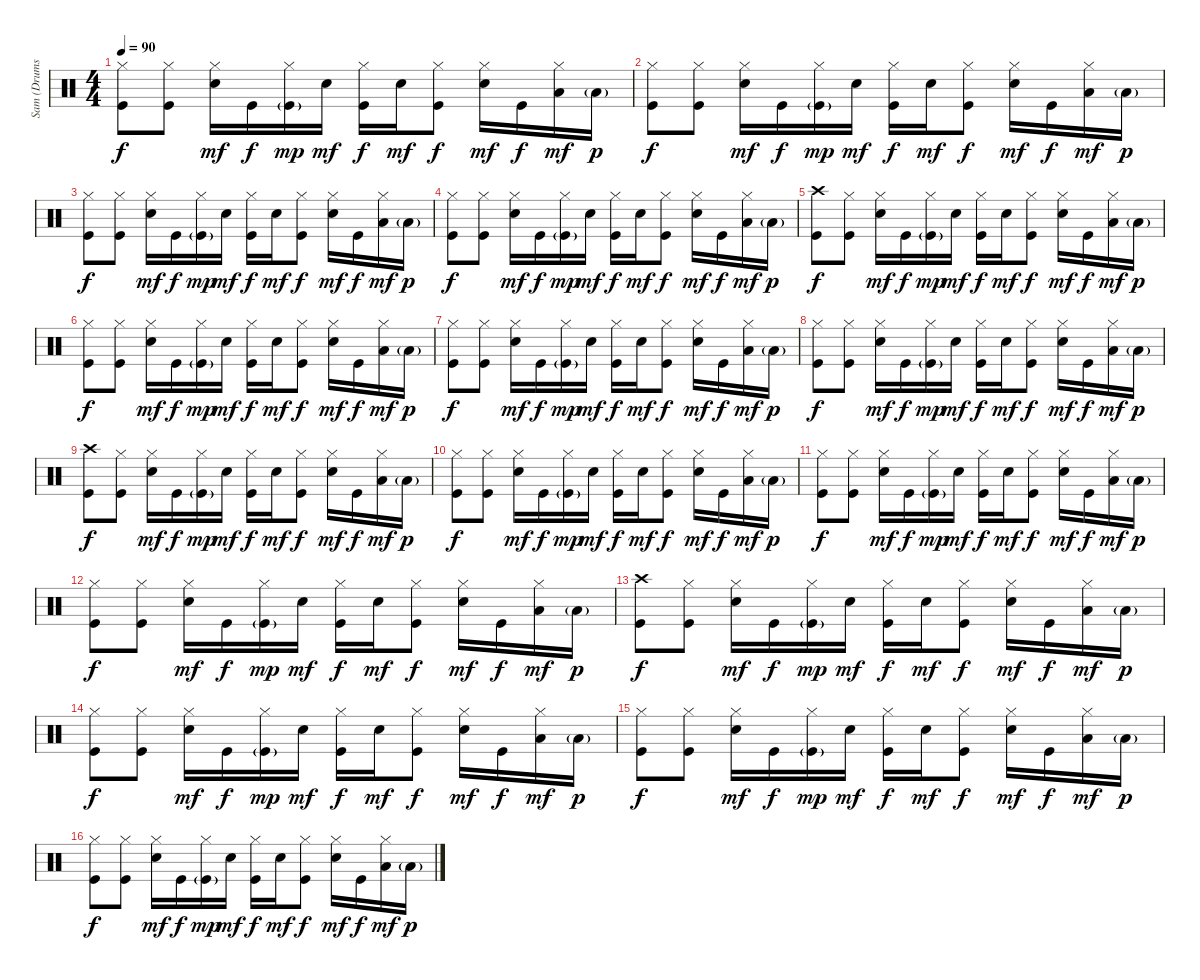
\track ("Sam (Drums)" "Sam (Drums") {instrument percussion}
\staff {score}
\articulation defaults
\ts (4 4)
\tempo 90
\clef neutral
\ks c
("Hi-Hat (closed)" "Kick (hit)").8{dy f} ("Hi-Hat (closed)" "Kick (hit)").8 ("Hi-Hat (closed)" "Snare (hit) 2").16{dy mf} "Kick (hit)".16{dy f} ("Hi-Hat (closed)" "Kick (hit)"{g}).16{dy mp} "Snare (hit) 2".16{dy mf} ("Hi-Hat (closed)" "Kick (hit)").16{dy f} "Snare (hit) 2".16{dy mf} ("Hi-Hat (closed)" "Kick (hit)").8{dy f} ("Hi-Hat (closed)" "Snare (hit) 2").16{dy mf} "Kick (hit)".16{dy f} ("Hi-Hat (closed)" "Low Tom (hit)").16{dy mf} "Low Tom (hit)"{g}.16{dy p} |
("Hi-Hat (closed)" "Kick (hit)").8{dy f} ("Hi-Hat (closed)" "Kick (hit)").8 ("Hi-Hat (closed)" "Snare (hit) 2").16{dy mf} "Kick (hit)".16{dy f} ("Hi-Hat (closed)" "Kick (hit)"{g}).16{dy mp} "Snare (hit) 2".16{dy mf} ("Hi-Hat (closed)" "Kick (hit)").16{dy f} "Snare (hit) 2".16{dy mf} ("Hi-Hat (closed)" "Kick (hit)").8{dy f} ("Hi-Hat (closed)" "Snare (hit) 2").16{dy mf} "Kick (hit)".16{dy f} ("Hi-Hat (closed)" "Low Tom (hit)").16{dy mf} "Low Tom (hit)"{g}.16{dy p} |
("Hi-Hat (closed)" "Kick (hit)").8{dy f} ("Hi-Hat (closed)" "Kick (hit)").8 ("Hi-Hat (closed)" "Snare (hit) 2").16{dy mf} "Kick (hit)".16{dy f} ("Hi-Hat (closed)" "Kick (hit)"{g}).16{dy mp} "Snare (hit) 2".16{dy mf} ("Hi-Hat (closed)" "Kick (hit)").16{dy f} "Snare (hit) 2".16{dy mf} ("Hi-Hat (closed)" "Kick (hit)").8{dy f} ("Hi-Hat (closed)" "Snare (hit) 2").16{dy mf} "Kick (hit)".16{dy f} ("Hi-Hat (closed)" "Low Tom (hit)").16{dy mf} "Low Tom (hit)"{g}.16{dy p} |
("Hi-Hat (closed)" "Kick (hit)").8{dy f} ("Hi-Hat (closed)" "Kick (hit)").8 ("Hi-Hat (closed)" "Snare (hit) 2").16{dy mf} "Kick (hit)".16{dy f} ("Hi-Hat (closed)" "Kick (hit)"{g}).16{dy mp} "Snare (hit) 2".16{dy mf} ("Hi-Hat (closed)" "Kick (hit)").16{dy f} "Snare (hit) 2".16{dy mf} ("Hi-Hat (closed)" "Kick (hit)").8{dy f} ("Hi-Hat (closed)" "Snare (hit) 2").16{dy mf} "Kick (hit)".16{dy f} ("Hi-Hat (closed)" "Low Tom (hit)").16{dy mf} "Low Tom (hit)"{g}.16{dy p} |
("Crash high (hit)" "Kick (hit)").8{dy f} ("Hi-Hat (closed)" "Kick (hit)").8 ("Hi-Hat (closed)" "Snare (hit) 2").16{dy mf} "Kick (hit)".16{dy f} ("Hi-Hat (closed)" "Kick (hit)"{g}).16{dy mp} "Snare (hit) 2".16{dy mf} ("Hi-Hat (closed)" "Kick (hit)").16{dy f} "Snare (hit) 2".16{dy mf} ("Hi-Hat (closed)" "Kick (hit)").8{dy f} ("Hi-Hat (closed)" "Snare (hit) 2").16{dy mf} "Kick (hit)".16{dy f} ("Hi-Hat (closed)" "Low Tom (hit)").16{dy mf} "Low Tom (hit)"{g}.16{dy p} |
("Hi-Hat (closed)" "Kick (hit)").8{dy f} ("Hi-Hat (closed)" "Kick (hit)").8 ("Hi-Hat (closed)" "Snare (hit) 2").16{dy mf} "Kick (hit)".16{dy f} ("Hi-Hat (closed)" "Kick (hit)"{g}).16{dy mp} "Snare (hit) 2".16{dy mf} ("Hi-Hat (closed)" "Kick (hit)").16{dy f} "Snare (hit) 2".16{dy mf} ("Hi-Hat (closed)" "Kick (hit)").8{dy f} ("Hi-Hat (closed)" "Snare (hit) 2").16{dy mf} "Kick (hit)".16{dy f} ("Hi-Hat (closed)" "Low Tom (hit)").16{dy mf} "Low Tom (hit)"{g}.16{dy p} |
("Hi-Hat (closed)" "Kick (hit)").8{dy f} ("Hi-Hat (closed)" "Kick (hit)").8 ("Hi-Hat (closed)" "Snare (hit) 2").16{dy mf} "Kick (hit)".16{dy f} ("Hi-Hat (closed)" "Kick (hit)"{g}).16{dy mp} "Snare (hit) 2".16{dy mf} ("Hi-Hat (closed)" "Kick (hit)").16{dy f} "Snare (hit) 2".16{dy mf} ("Hi-Hat (closed)" "Kick (hit)").8{dy f} ("Hi-Hat (closed)" "Snare (hit) 2").16{dy mf} "Kick (hit)".16{dy f} ("Hi-Hat (closed)" "Low Tom (hit)").16{dy mf} "Low Tom (hit)"{g}.16{dy p} |
("Hi-Hat (closed)" "Kick (hit)").8{dy f} ("Hi-Hat (closed)" "Kick (hit)").8 ("Hi-Hat (closed)" "Snare (hit) 2").16{dy mf} "Kick (hit)".16{dy f} ("Hi-Hat (closed)" "Kick (hit)"{g}).16{dy mp} "Snare (hit) 2".16{dy mf} ("Hi-Hat (closed)" "Kick (hit)").16{dy f} "Snare (hit) 2".16{dy mf} ("Hi-Hat (closed)" "Kick (hit)").8{dy f} ("Hi-Hat (closed)" "Snare (hit) 2").16{dy mf} "Kick (hit)".16{dy f} ("Hi-Hat (closed)" "Low Tom (hit)").16{dy mf} "Low Tom (hit)"{g}.16{dy p} |
("Crash high (hit)" "Kick (hit)").8{dy f} ("Hi-Hat (closed)" "Kick (hit)").8 ("Hi-Hat (closed)" "Snare (hit) 2").16{dy mf} "Kick (hit)".16{dy f} ("Hi-Hat (closed)" "Kick (hit)"{g}).16{dy mp} "Snare (hit) 2".16{dy mf} ("Hi-Hat (closed)" "Kick (hit)").16{dy f} "Snare (hit) 2".16{dy mf} ("Hi-Hat (closed)" "Kick (hit)").8{dy f} ("Hi-Hat (closed)" "Snare (hit) 2").16{dy mf} "Kick (hit)".16{dy f} ("Hi-Hat (closed)" "Low Tom (hit)").16{dy mf} "Low Tom (hit)"{g}.16{dy p} |
("Hi-Hat (closed)" "Kick (hit)").8{dy f} ("Hi-Hat (closed)" "Kick (hit)").8 ("Hi-Hat (closed)" "Snare (hit) 2").16{dy mf} "Kick (hit)".16{dy f} ("Hi-Hat (closed)" "Kick (hit)"{g}).16{dy mp} "Snare (hit) 2".16{dy mf} ("Hi-Hat (closed)" "Kick (hit)").16{dy f} "Snare (hit) 2".16{dy mf} ("Hi-Hat (closed)" "Kick (hit)").8{dy f} ("Hi-Hat (closed)" "Snare (hit) 2").16{dy mf} "Kick (hit)".16{dy f} ("Hi-Hat (closed)" "Low Tom (hit)").16{dy mf} "Low Tom (hit)"{g}.16{dy p} |
("Hi-Hat (closed)" "Kick (hit)").8{dy f} ("Hi-Hat (closed)" "Kick (hit)").8 ("Hi-Hat (closed)" "Snare (hit) 2").16{dy mf} "Kick (hit)".16{dy f} ("Hi-Hat (closed)" "Kick (hit)"{g}).16{dy mp} "Snare (hit) 2".16{dy mf} ("Hi-Hat (closed)" "Kick (hit)").16{dy f} "Snare (hit) 2".16{dy mf} ("Hi-Hat (closed)" "Kick (hit)").8{dy f} ("Hi-Hat (closed)" "Snare (hit) 2").16{dy mf} "Kick (hit)".16{dy f} ("Hi-Hat (closed)" "Low Tom (hit)").16{dy mf} "Low Tom (hit)"{g}.16{dy p} |
("Hi-Hat (closed)" "Kick (hit)").8{dy f} ("Hi-Hat (closed)" "Kick (hit)").8 ("Hi-Hat (closed)" "Snare (hit) 2").16{dy mf} "Kick (hit)".16{dy f} ("Hi-Hat (closed)" "Kick (hit)"{g}).16{dy mp} "Snare (hit) 2".16{dy mf} ("Hi-Hat (closed)" "Kick (hit)").16{dy f} "Snare (hit) 2".16{dy mf} ("Hi-Hat (closed)" "Kick (hit)").8{dy f} ("Hi-Hat (closed)" "Snare (hit) 2").16{dy mf} "Kick (hit)".16{dy f} ("Hi-Hat (closed)" "Low Tom (hit)").16{dy mf} "Low Tom (hit)"{g}.16{dy p} |
("Crash high (hit)" "Kick (hit)").8{dy f} ("Hi-Hat (closed)" "Kick (hit)").8 ("Hi-Hat (closed)" "Snare (hit) 2").16{dy mf} "Kick (hit)".16{dy f} ("Hi-Hat (closed)" "Kick (hit)"{g}).16{dy mp} "Snare (hit) 2".16{dy mf} ("Hi-Hat (closed)" "Kick (hit)").16{dy f} "Snare (hit) 2".16{dy mf} ("Hi-Hat (closed)" "Kick (hit)").8{dy f} ("Hi-Hat (closed)" "Snare (hit) 2").16{dy mf} "Kick (hit)".16{dy f} ("Hi-Hat (closed)" "Low Tom (hit)").16{dy mf} "Low Tom (hit)"{g}.16{dy p} |
("Hi-Hat (closed)" "Kick (hit)").8{dy f} ("Hi-Hat (closed)" "Kick (hit)").8 ("Hi-Hat (closed)" "Snare (hit) 2").16{dy mf} "Kick (hit)".16{dy f} ("Hi-Hat (closed)" "Kick (hit)"{g}).16{dy mp} "Snare (hit) 2".16{dy mf} ("Hi-Hat (closed)" "Kick (hit)").16{dy f} "Snare (hit) 2".16{dy mf} ("Hi-Hat (closed)" "Kick (hit)").8{dy f} ("Hi-Hat (closed)" "Snare (hit) 2").16{dy mf} "Kick (hit)".16{dy f} ("Hi-Hat (closed)" "Low Tom (hit)").16{dy mf} "Low Tom (hit)"{g}.16{dy p} |
("Hi-Hat (closed)" "Kick (hit)").8{dy f} ("Hi-Hat (closed)" "Kick (hit)").8 ("Hi-Hat (closed)" "Snare (hit) 2").16{dy mf} "Kick (hit)".16{dy f} ("Hi-Hat (closed)" "Kick (hit)"{g}).16{dy mp} "Snare (hit) 2".16{dy mf} ("Hi-Hat (closed)" "Kick (hit)").16{dy f} "Snare (hit) 2".16{dy mf} ("Hi-Hat (closed)" "Kick (hit)").8{dy f} ("Hi-Hat (closed)" "Snare (hit) 2").16{dy mf} "Kick (hit)".16{dy f} ("Hi-Hat (closed)" "Low Tom (hit)").16{dy mf} "Low Tom (hit)"{g}.16{dy p} |
("Hi-Hat (closed)" "Kick (hit)").8{dy f} ("Hi-Hat (closed)" "Kick (hit)").8 ("Hi-Hat (closed)" "Snare (hit) 2").16{dy mf} "Kick (hit)".16{dy f} ("Hi-Hat (closed)" "Kick (hit)"{g}).16{dy mp} "Snare (hit) 2".16{dy mf} ("Hi-Hat (closed)" "Kick (hit)").16{dy f} "Snare (hit) 2".16{dy mf} ("Hi-Hat (closed)" "Kick (hit)").8{dy f} ("Hi-Hat (closed)" "Snare (hit) 2").16{dy mf} "Kick (hit)".16{dy f} ("Hi-Hat (closed)" "Low Tom (hit)").16{dy mf} "Low Tom (hit)"{g}.16{dy p}
